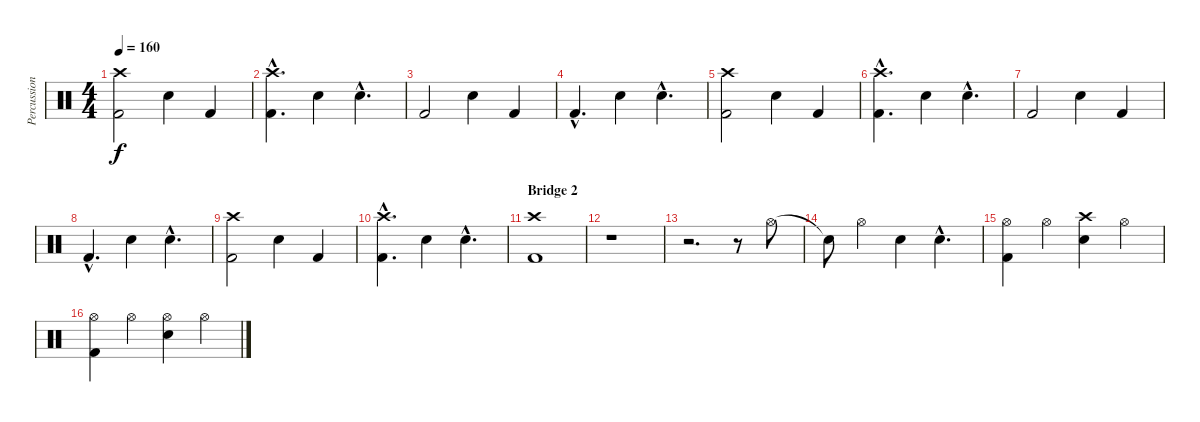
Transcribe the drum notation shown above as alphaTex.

\track ("Percussion" "Percussion") {instrument percussion}
\staff {score}
\articulation defaults
\ts (4 4)
\tempo 160
\clef neutral
\ks c
("Crash high (hit)" "Kick (hit) 2").2{dy f} "Electric Snare (hit)".4 "Kick (hit) 2".4 |
("Crash high (hit)"{hac} "Kick (hit) 2"{hac}).4{d} "Electric Snare (hit)".4 "Electric Snare (hit)"{hac}.4{d} |
"Kick (hit) 2".2 "Electric Snare (hit)".4 "Kick (hit) 2".4 |
"Kick (hit) 2"{hac}.4{d} "Electric Snare (hit)".4 "Electric Snare (hit)"{hac}.4{d} |
("Crash high (hit)" "Kick (hit) 2").2 "Electric Snare (hit)".4 "Kick (hit) 2".4 |
("Crash high (hit)"{hac} "Kick (hit) 2"{hac}).4{d} "Electric Snare (hit)".4 "Electric Snare (hit)"{hac}.4{d} |
"Kick (hit) 2".2 "Electric Snare (hit)".4 "Kick (hit) 2".4 |
"Kick (hit) 2"{hac}.4{d} "Electric Snare (hit)".4 "Electric Snare (hit)"{hac}.4{d} |
("Crash high (hit)" "Kick (hit) 2").2 "Electric Snare (hit)".4 "Kick (hit) 2".4 |
("Crash high (hit)"{hac} "Kick (hit) 2"{hac}).4{d} "Electric Snare (hit)".4 "Electric Snare (hit)"{hac}.4{d} |
\section ("" "Bridge 2")
("Crash high (hit)" "Kick (hit) 2").1 |
r.1 |
r.2{d} r.8 "Hi-Hat (open)".8 |
"Snare (hit)"{t}.8 "Hi-Hat (open)".4 "Electric Snare (hit)".4 "Electric Snare (hit)"{hac}.4{d} |
("Hi-Hat (open)" "Kick (hit) 2").4 "Hi-Hat (open)".4 ("Crash high (hit)" "Electric Snare (hit)").4 "Hi-Hat (open)".4 |
("Hi-Hat (open)" "Kick (hit) 2").4 "Hi-Hat (open)".4 ("Hi-Hat (open)" "Electric Snare (hit)").4 "Hi-Hat (open)".4
